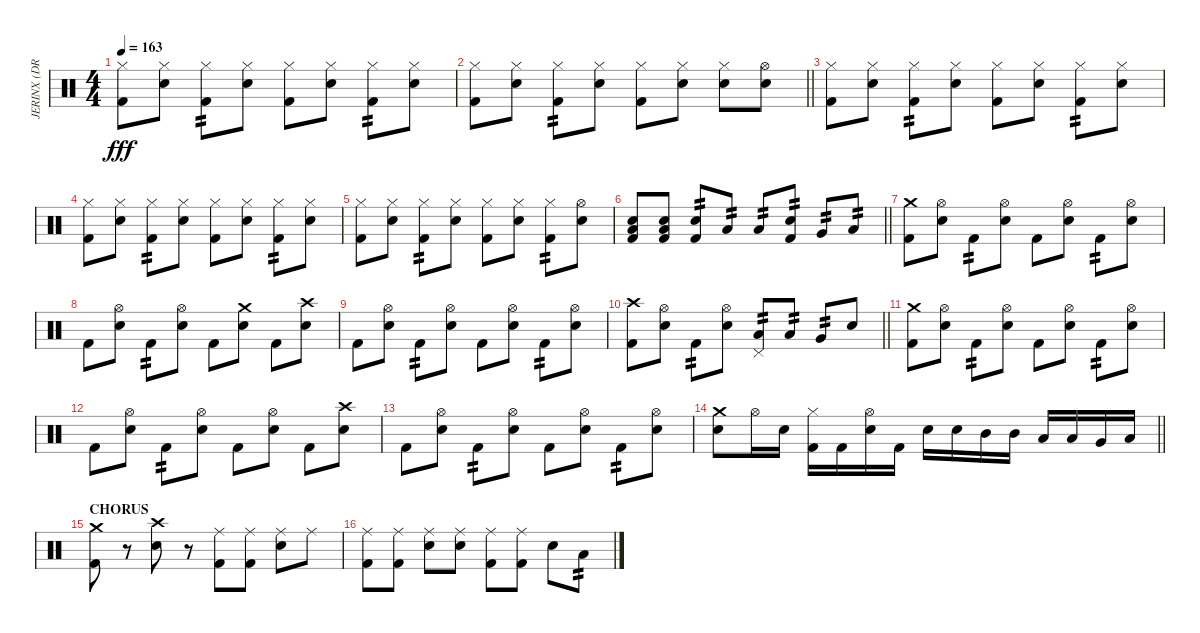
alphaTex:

\track ("JERINX (DRUM)" "JERINX (DR") {instrument percussion}
\staff {score}
\articulation defaults
\ts (4 4)
\tempo 163
\clef neutral
\ks c
("Hi-Hat (closed)" "Kick (hit) 2").8{dy fff} ("Hi-Hat (closed)" "Snare (hit) 2").8 ("Hi-Hat (closed)" "Kick (hit) 2").8{tp 2} ("Hi-Hat (closed)" "Snare (hit) 2").8 ("Hi-Hat (closed)" "Kick (hit) 2").8 ("Hi-Hat (closed)" "Snare (hit) 2").8 ("Hi-Hat (closed)" "Kick (hit) 2").8{tp 2} ("Hi-Hat (closed)" "Snare (hit) 2").8 |
\barLineRight lightlight
("Hi-Hat (closed)" "Kick (hit) 2").8 ("Hi-Hat (closed)" "Snare (hit) 2").8 ("Hi-Hat (closed)" "Kick (hit) 2").8{tp 2} ("Hi-Hat (closed)" "Snare (hit) 2").8 ("Hi-Hat (closed)" "Kick (hit) 2").8 ("Hi-Hat (closed)" "Snare (hit) 2").8 ("Hi-Hat (closed)" "Snare (hit) 2").8 ("Hi-Hat (open)" "Snare (hit) 2").8 |
("Hi-Hat (closed)" "Kick (hit) 2").8 ("Hi-Hat (closed)" "Snare (hit) 2").8 ("Hi-Hat (closed)" "Kick (hit) 2").8{tp 2} ("Hi-Hat (closed)" "Snare (hit) 2").8 ("Hi-Hat (closed)" "Kick (hit) 2").8 ("Hi-Hat (closed)" "Snare (hit) 2").8 ("Hi-Hat (closed)" "Kick (hit) 2").8{tp 2} ("Hi-Hat (closed)" "Snare (hit) 2").8 |
("Hi-Hat (closed)" "Kick (hit) 2").8 ("Hi-Hat (closed)" "Snare (hit) 2").8 ("Hi-Hat (closed)" "Kick (hit) 2").8{tp 2} ("Hi-Hat (closed)" "Snare (hit) 2").8 ("Hi-Hat (closed)" "Kick (hit) 2").8 ("Hi-Hat (closed)" "Snare (hit) 2").8 ("Hi-Hat (closed)" "Kick (hit) 2").8{tp 2} ("Hi-Hat (closed)" "Snare (hit) 2").8 |
("Hi-Hat (closed)" "Kick (hit) 2").8 ("Hi-Hat (closed)" "Snare (hit) 2").8 ("Hi-Hat (closed)" "Kick (hit) 2").8{tp 2} ("Hi-Hat (closed)" "Snare (hit) 2").8 ("Hi-Hat (closed)" "Kick (hit) 2").8 ("Hi-Hat (closed)" "Snare (hit) 2").8 ("Hi-Hat (closed)" "Kick (hit) 2").8{tp 2} ("Hi-Hat (open)" "Snare (hit) 2").8 |
\barLineRight lightlight
("Snare (hit) 2" "Kick (hit) 2" "Low Floor Tom (hit)").8 ("Snare (hit) 2" "Kick (hit) 2" "Low Floor Tom (hit)").8 ("Snare (hit) 2" "Kick (hit) 2").8{tp 2} "Low Tom (hit)".8{tp 2} "Low Floor Tom (hit)".8{tp 2} ("Snare (hit) 2" "Kick (hit) 2").8{tp 2} "Very Low Tom (hit)".8{tp 2} "Low Floor Tom (hit)".8{tp 2} |
("Kick (hit) 2" "Crash medium (hit)").8 ("Hi-Hat (open)" "Snare (hit) 2").8 "Kick (hit) 2".8{tp 2} ("Hi-Hat (open)" "Snare (hit) 2").8 "Kick (hit) 2".8 ("Hi-Hat (open)" "Snare (hit) 2").8 "Kick (hit) 2".8{tp 2} ("Hi-Hat (open)" "Snare (hit) 2").8 |
"Kick (hit) 2".8 ("Hi-Hat (open)" "Snare (hit) 2").8 "Kick (hit) 2".8{tp 2} ("Hi-Hat (open)" "Snare (hit) 2").8 "Kick (hit) 2".8 ("Snare (hit) 2" "Crash medium (hit)").8 "Kick (hit) 2".8 ("Snare (hit) 2" "Crash high (hit)").8 |
"Kick (hit) 2".8 ("Hi-Hat (open)" "Snare (hit) 2").8 "Kick (hit) 2".8{tp 2} ("Hi-Hat (open)" "Snare (hit) 2").8 "Kick (hit) 2".8 ("Hi-Hat (open)" "Snare (hit) 2").8 "Kick (hit) 2".8{tp 2} ("Hi-Hat (open)" "Snare (hit) 2").8 |
\barLineRight lightlight
("Kick (hit) 2" "Crash high (hit)").8 ("Hi-Hat (open)" "Snare (hit) 2").8 "Kick (hit) 2".8{tp 2} ("Hi-Hat (open)" "Snare (hit) 2").8 ("Pedal Hi-Hat (hit)" "Low Tom (hit)").8{tp 2} "Low Tom (hit)".8{tp 2} "Very Low Tom (hit)".8{tp 2} "Snare (hit) 2".8 |
("Kick (hit) 2" "Crash medium (hit)").8 ("Hi-Hat (open)" "Snare (hit) 2").8 "Kick (hit) 2".8{tp 2} ("Hi-Hat (open)" "Snare (hit) 2").8 "Kick (hit) 2".8 ("Hi-Hat (open)" "Snare (hit) 2").8 "Kick (hit) 2".8{tp 2} ("Hi-Hat (open)" "Snare (hit) 2").8 |
"Kick (hit) 2".8 ("Hi-Hat (open)" "Snare (hit) 2").8 "Kick (hit) 2".8{tp 2} ("Hi-Hat (open)" "Snare (hit) 2").8 "Kick (hit) 2".8 ("Hi-Hat (open)" "Snare (hit) 2").8 "Kick (hit) 2".8 ("Snare (hit) 2" "Crash high (hit)").8 |
"Kick (hit) 2".8 ("Hi-Hat (open)" "Snare (hit) 2").8 "Kick (hit) 2".8{tp 2} ("Hi-Hat (open)" "Snare (hit) 2").8 "Kick (hit) 2".8 ("Hi-Hat (open)" "Snare (hit) 2").8 "Kick (hit) 2".8{tp 2} ("Hi-Hat (open)" "Snare (hit) 2").8 |
\barLineRight lightlight
("Snare (hit) 2" "Crash medium (hit)").8 "Hi-Hat (open)".16 "Snare (hit) 2".16 ("Hi-Hat (closed)" "Kick (hit) 2").16 "Kick (hit) 2".16 ("Hi-Hat (open)" "Snare (hit) 2").16 "Kick (hit) 2".16 "Snare (hit) 2".16 "Snare (hit) 2".16 "Mid Tom (hit)".16 "Mid Tom (hit)".16 "Low Tom (hit)".16 "Low Tom (hit)".16 "Very Low Tom (hit)".16 "Low Floor Tom (hit)".16 |
\section ("" "CHORUS")
("Kick (hit) 2" "Crash medium (hit)").8 r.8 ("Snare (hit) 2" "Crash high (hit)").8 r.8 ("Kick (hit) 2" "Ride (middle)").8 ("Kick (hit) 2" "Ride (middle)").8 ("Snare (hit) 2" "Ride (middle)").8 "Ride (middle)".8 |
("Kick (hit) 2" "Ride (middle)").8 ("Kick (hit) 2" "Ride (middle)").8 ("Snare (hit) 2" "Ride (middle)").8 ("Snare (hit) 2" "Ride (middle)").8 ("Kick (hit) 2" "Ride (middle)").8 ("Kick (hit) 2" "Ride (middle)").8 "Snare (hit) 2".8 "Low Tom (hit)".8{tp 2}
